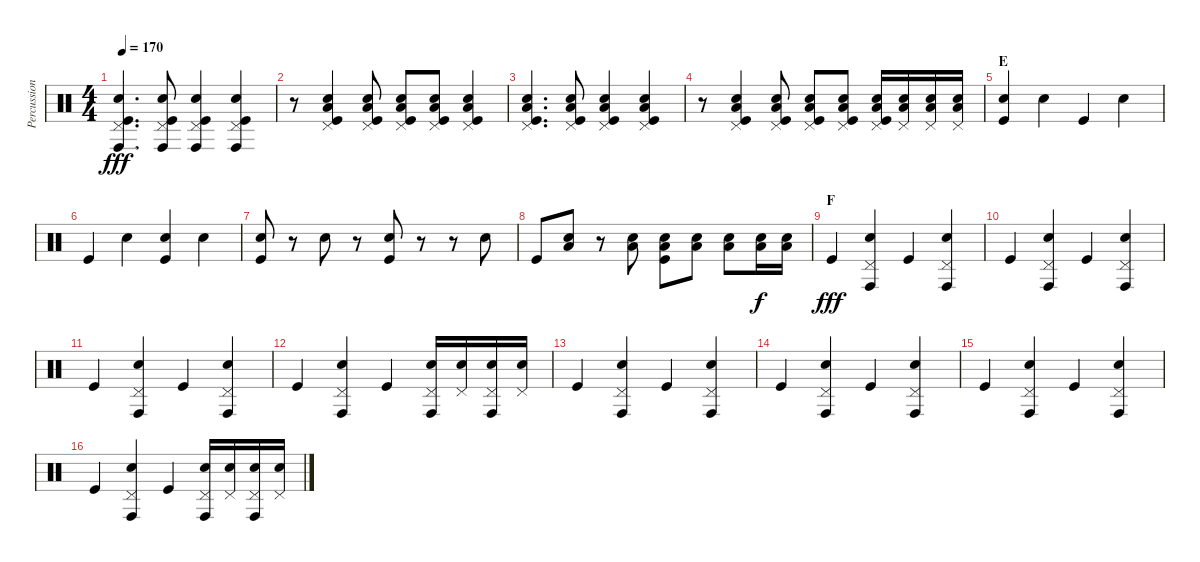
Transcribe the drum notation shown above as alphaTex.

\track ("Percussion" "Percussion") {instrument percussion}
\staff {score}
\articulation defaults
\ts (4 4)
\tempo 170
\clef neutral
\ks c
("Pedal Hi-Hat (hit)" "Conga high (hit)" "Electric Snare (hit)" "Kick (hit)").4{d dy fff} ("Pedal Hi-Hat (hit)" "Conga high (hit)" "Electric Snare (hit)" "Kick (hit)").8 ("Pedal Hi-Hat (hit)" "Conga high (hit)" "Electric Snare (hit)" "Kick (hit)").4 ("Pedal Hi-Hat (hit)" "Conga high (hit)" "Electric Snare (hit)" "Kick (hit)").4 |
r.8 ("Pedal Hi-Hat (hit)" "Low Floor Tom (hit)" "Electric Snare (hit)" "Kick (hit)").4 ("Pedal Hi-Hat (hit)" "Low Floor Tom (hit)" "Electric Snare (hit)" "Kick (hit)").8 ("Pedal Hi-Hat (hit)" "Low Floor Tom (hit)" "Electric Snare (hit)" "Kick (hit)").8 ("Pedal Hi-Hat (hit)" "Low Floor Tom (hit)" "Electric Snare (hit)" "Kick (hit)").8 ("Pedal Hi-Hat (hit)" "Low Floor Tom (hit)" "Electric Snare (hit)" "Kick (hit)").4 |
("Pedal Hi-Hat (hit)" "Low Floor Tom (hit)" "Electric Snare (hit)" "Kick (hit)").4{d} ("Pedal Hi-Hat (hit)" "Low Floor Tom (hit)" "Electric Snare (hit)" "Kick (hit)").8 ("Pedal Hi-Hat (hit)" "Low Floor Tom (hit)" "Electric Snare (hit)" "Kick (hit)").4 ("Pedal Hi-Hat (hit)" "Low Floor Tom (hit)" "Electric Snare (hit)" "Kick (hit)").4 |
r.8 ("Pedal Hi-Hat (hit)" "Low Floor Tom (hit)" "Electric Snare (hit)" "Kick (hit)").4 ("Pedal Hi-Hat (hit)" "Low Floor Tom (hit)" "Electric Snare (hit)" "Kick (hit)").8 ("Pedal Hi-Hat (hit)" "Low Floor Tom (hit)" "Electric Snare (hit)" "Kick (hit)").8 ("Pedal Hi-Hat (hit)" "Low Floor Tom (hit)" "Electric Snare (hit)" "Kick (hit)").8 ("Pedal Hi-Hat (hit)" "Low Floor Tom (hit)" "Electric Snare (hit)" "Kick (hit)").16 ("Pedal Hi-Hat (hit)" "Low Floor Tom (hit)" "Electric Snare (hit)").16 ("Pedal Hi-Hat (hit)" "Low Floor Tom (hit)" "Electric Snare (hit)").16 ("Pedal Hi-Hat (hit)" "Low Floor Tom (hit)" "Electric Snare (hit)").16 |
\section ("" "E")
("Electric Snare (hit)" "Kick (hit)").4 "Electric Snare (hit)".4 "Kick (hit)".4 "Electric Snare (hit)".4 |
"Kick (hit)".4 "Electric Snare (hit)".4 ("Electric Snare (hit)" "Kick (hit)").4 "Electric Snare (hit)".4 |
("Electric Snare (hit)" "Kick (hit)").8 r.8 "Electric Snare (hit)".8 r.8 ("Electric Snare (hit)" "Kick (hit)").8 r.8 r.8 "Electric Snare (hit)".8 |
"Kick (hit)".8 ("Low Floor Tom (hit)" "Electric Snare (hit)").8 r.8 ("Low Floor Tom (hit)" "Electric Snare (hit)").8 ("Low Floor Tom (hit)" "Electric Snare (hit)" "Kick (hit)").8 ("Low Floor Tom (hit)" "Electric Snare (hit)").8 ("Low Floor Tom (hit)" "Electric Snare (hit)").8 ("Low Floor Tom (hit)" "Electric Snare (hit)").16{dy f} ("Low Floor Tom (hit)" "Electric Snare (hit)").16 |
\section ("" "F")
"Kick (hit)".4{dy fff} ("Pedal Hi-Hat (hit)" "Conga high (hit)" "Electric Snare (hit)").4 "Kick (hit)".4 ("Pedal Hi-Hat (hit)" "Conga high (hit)" "Electric Snare (hit)").4 |
"Kick (hit)".4 ("Pedal Hi-Hat (hit)" "Conga high (hit)" "Electric Snare (hit)").4 "Kick (hit)".4 ("Pedal Hi-Hat (hit)" "Conga high (hit)" "Electric Snare (hit)").4 |
"Kick (hit)".4 ("Pedal Hi-Hat (hit)" "Conga high (hit)" "Electric Snare (hit)").4 "Kick (hit)".4 ("Pedal Hi-Hat (hit)" "Conga high (hit)" "Electric Snare (hit)").4 |
"Kick (hit)".4 ("Pedal Hi-Hat (hit)" "Conga high (hit)" "Electric Snare (hit)").4 "Kick (hit)".4 ("Pedal Hi-Hat (hit)" "Conga high (hit)" "Electric Snare (hit)").16 ("Pedal Hi-Hat (hit)" "Electric Snare (hit)").16 ("Pedal Hi-Hat (hit)" "Conga high (hit)" "Electric Snare (hit)").16 ("Pedal Hi-Hat (hit)" "Electric Snare (hit)").16 |
"Kick (hit)".4 ("Pedal Hi-Hat (hit)" "Conga high (hit)" "Electric Snare (hit)").4 "Kick (hit)".4 ("Pedal Hi-Hat (hit)" "Conga high (hit)" "Electric Snare (hit)").4 |
"Kick (hit)".4 ("Pedal Hi-Hat (hit)" "Conga high (hit)" "Electric Snare (hit)").4 "Kick (hit)".4 ("Pedal Hi-Hat (hit)" "Conga high (hit)" "Electric Snare (hit)").4 |
"Kick (hit)".4 ("Pedal Hi-Hat (hit)" "Conga high (hit)" "Electric Snare (hit)").4 "Kick (hit)".4 ("Pedal Hi-Hat (hit)" "Conga high (hit)" "Electric Snare (hit)").4 |
"Kick (hit)".4 ("Pedal Hi-Hat (hit)" "Conga high (hit)" "Electric Snare (hit)").4 "Kick (hit)".4 ("Pedal Hi-Hat (hit)" "Conga high (hit)" "Electric Snare (hit)").16 ("Pedal Hi-Hat (hit)" "Electric Snare (hit)").16 ("Pedal Hi-Hat (hit)" "Conga high (hit)" "Electric Snare (hit)").16 ("Pedal Hi-Hat (hit)" "Electric Snare (hit)").16
